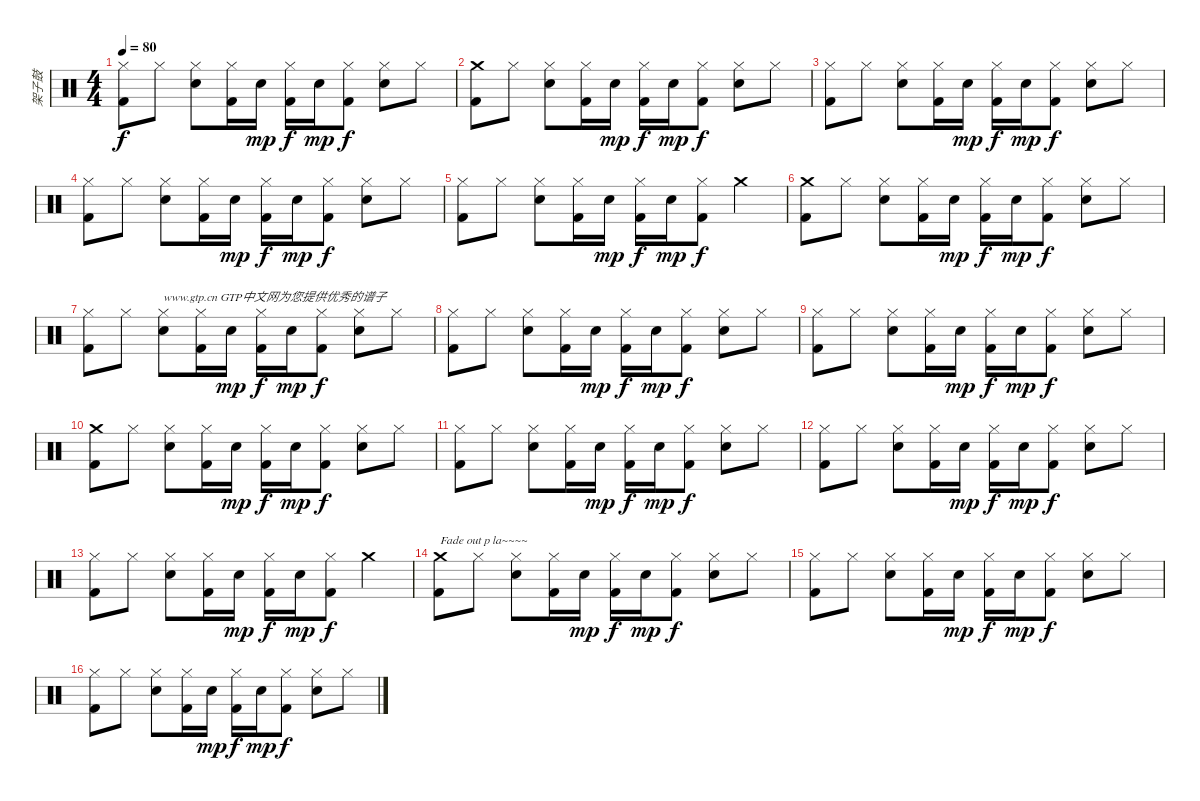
\track ("架子鼓" "架子鼓") {instrument percussion}
\staff {score}
\articulation defaults
\ts (4 4)
\tempo 80
\clef neutral
\ks c
("Hi-Hat (closed)" "Kick (hit) 2").8{dy f} "Hi-Hat (closed)".8 ("Hi-Hat (closed)" "Snare (hit) 2").8 ("Hi-Hat (closed)" "Kick (hit) 2").16 "Snare (hit) 2".16{dy mp} ("Hi-Hat (closed)" "Kick (hit) 2").16{dy f} "Snare (hit) 2".16{dy mp} ("Hi-Hat (closed)" "Kick (hit) 2").8{dy f} ("Hi-Hat (closed)" "Snare (hit) 2").8 "Hi-Hat (closed)".8 |
("Crash medium (hit)" "Kick (hit) 2").8 "Hi-Hat (closed)".8 ("Hi-Hat (closed)" "Snare (hit) 2").8 ("Hi-Hat (closed)" "Kick (hit) 2").16 "Snare (hit) 2".16{dy mp} ("Hi-Hat (closed)" "Kick (hit) 2").16{dy f} "Snare (hit) 2".16{dy mp} ("Hi-Hat (closed)" "Kick (hit) 2").8{dy f} ("Hi-Hat (closed)" "Snare (hit) 2").8 "Hi-Hat (closed)".8 |
("Hi-Hat (closed)" "Kick (hit) 2").8 "Hi-Hat (closed)".8 ("Hi-Hat (closed)" "Snare (hit) 2").8 ("Hi-Hat (closed)" "Kick (hit) 2").16 "Snare (hit) 2".16{dy mp} ("Hi-Hat (closed)" "Kick (hit) 2").16{dy f} "Snare (hit) 2".16{dy mp} ("Hi-Hat (closed)" "Kick (hit) 2").8{dy f} ("Hi-Hat (closed)" "Snare (hit) 2").8 "Hi-Hat (closed)".8 |
("Hi-Hat (closed)" "Kick (hit) 2").8 "Hi-Hat (closed)".8 ("Hi-Hat (closed)" "Snare (hit) 2").8 ("Hi-Hat (closed)" "Kick (hit) 2").16 "Snare (hit) 2".16{dy mp} ("Hi-Hat (closed)" "Kick (hit) 2").16{dy f} "Snare (hit) 2".16{dy mp} ("Hi-Hat (closed)" "Kick (hit) 2").8{dy f} ("Hi-Hat (closed)" "Snare (hit) 2").8 "Hi-Hat (closed)".8 |
("Hi-Hat (closed)" "Kick (hit) 2").8 "Hi-Hat (closed)".8 ("Hi-Hat (closed)" "Snare (hit) 2").8 ("Hi-Hat (closed)" "Kick (hit) 2").16 "Snare (hit) 2".16{dy mp} ("Hi-Hat (closed)" "Kick (hit) 2").16{dy f} "Snare (hit) 2".16{dy mp} ("Hi-Hat (closed)" "Kick (hit) 2").8{dy f} "Crash medium (hit)".4 |
("Crash medium (hit)" "Kick (hit) 2").8 "Hi-Hat (closed)".8 ("Hi-Hat (closed)" "Snare (hit) 2").8 ("Hi-Hat (closed)" "Kick (hit) 2").16 "Snare (hit) 2".16{dy mp} ("Hi-Hat (closed)" "Kick (hit) 2").16{dy f} "Snare (hit) 2".16{dy mp} ("Hi-Hat (closed)" "Kick (hit) 2").8{dy f} ("Hi-Hat (closed)" "Snare (hit) 2").8 "Hi-Hat (closed)".8 |
("Hi-Hat (closed)" "Kick (hit) 2").8 "Hi-Hat (closed)".8 ("Hi-Hat (closed)" "Snare (hit) 2").8{txt "www.gtp.cn GTP中文网为您提供优秀的谱子"} ("Hi-Hat (closed)" "Kick (hit) 2").16 "Snare (hit) 2".16{dy mp} ("Hi-Hat (closed)" "Kick (hit) 2").16{dy f} "Snare (hit) 2".16{dy mp} ("Hi-Hat (closed)" "Kick (hit) 2").8{dy f} ("Hi-Hat (closed)" "Snare (hit) 2").8 "Hi-Hat (closed)".8 |
("Hi-Hat (closed)" "Kick (hit) 2").8 "Hi-Hat (closed)".8 ("Hi-Hat (closed)" "Snare (hit) 2").8 ("Hi-Hat (closed)" "Kick (hit) 2").16 "Snare (hit) 2".16{dy mp} ("Hi-Hat (closed)" "Kick (hit) 2").16{dy f} "Snare (hit) 2".16{dy mp} ("Hi-Hat (closed)" "Kick (hit) 2").8{dy f} ("Hi-Hat (closed)" "Snare (hit) 2").8 "Hi-Hat (closed)".8 |
("Hi-Hat (closed)" "Kick (hit) 2").8 "Hi-Hat (closed)".8 ("Hi-Hat (closed)" "Snare (hit) 2").8 ("Hi-Hat (closed)" "Kick (hit) 2").16 "Snare (hit) 2".16{dy mp} ("Hi-Hat (closed)" "Kick (hit) 2").16{dy f} "Snare (hit) 2".16{dy mp} ("Hi-Hat (closed)" "Kick (hit) 2").8{dy f} ("Hi-Hat (closed)" "Snare (hit) 2").8 "Hi-Hat (closed)".8 |
("Crash medium (hit)" "Kick (hit) 2").8 "Hi-Hat (closed)".8 ("Hi-Hat (closed)" "Snare (hit) 2").8 ("Hi-Hat (closed)" "Kick (hit) 2").16 "Snare (hit) 2".16{dy mp} ("Hi-Hat (closed)" "Kick (hit) 2").16{dy f} "Snare (hit) 2".16{dy mp} ("Hi-Hat (closed)" "Kick (hit) 2").8{dy f} ("Hi-Hat (closed)" "Snare (hit) 2").8 "Hi-Hat (closed)".8 |
("Hi-Hat (closed)" "Kick (hit) 2").8 "Hi-Hat (closed)".8 ("Hi-Hat (closed)" "Snare (hit) 2").8 ("Hi-Hat (closed)" "Kick (hit) 2").16 "Snare (hit) 2".16{dy mp} ("Hi-Hat (closed)" "Kick (hit) 2").16{dy f} "Snare (hit) 2".16{dy mp} ("Hi-Hat (closed)" "Kick (hit) 2").8{dy f} ("Hi-Hat (closed)" "Snare (hit) 2").8 "Hi-Hat (closed)".8 |
("Hi-Hat (closed)" "Kick (hit) 2").8 "Hi-Hat (closed)".8 ("Hi-Hat (closed)" "Snare (hit) 2").8 ("Hi-Hat (closed)" "Kick (hit) 2").16 "Snare (hit) 2".16{dy mp} ("Hi-Hat (closed)" "Kick (hit) 2").16{dy f} "Snare (hit) 2".16{dy mp} ("Hi-Hat (closed)" "Kick (hit) 2").8{dy f} ("Hi-Hat (closed)" "Snare (hit) 2").8 "Hi-Hat (closed)".8 |
("Hi-Hat (closed)" "Kick (hit) 2").8 "Hi-Hat (closed)".8 ("Hi-Hat (closed)" "Snare (hit) 2").8 ("Hi-Hat (closed)" "Kick (hit) 2").16 "Snare (hit) 2".16{dy mp} ("Hi-Hat (closed)" "Kick (hit) 2").16{dy f} "Snare (hit) 2".16{dy mp} ("Hi-Hat (closed)" "Kick (hit) 2").8{dy f} "Crash medium (hit)".4 |
("Crash medium (hit)" "Kick (hit) 2").8{txt "Fade out р la~~~~"} "Hi-Hat (closed)".8 ("Hi-Hat (closed)" "Snare (hit) 2").8 ("Hi-Hat (closed)" "Kick (hit) 2").16 "Snare (hit) 2".16{dy mp} ("Hi-Hat (closed)" "Kick (hit) 2").16{dy f} "Snare (hit) 2".16{dy mp} ("Hi-Hat (closed)" "Kick (hit) 2").8{dy f} ("Hi-Hat (closed)" "Snare (hit) 2").8 "Hi-Hat (closed)".8 |
("Hi-Hat (closed)" "Kick (hit) 2").8 "Hi-Hat (closed)".8 ("Hi-Hat (closed)" "Snare (hit) 2").8 ("Hi-Hat (closed)" "Kick (hit) 2").16 "Snare (hit) 2".16{dy mp} ("Hi-Hat (closed)" "Kick (hit) 2").16{dy f} "Snare (hit) 2".16{dy mp} ("Hi-Hat (closed)" "Kick (hit) 2").8{dy f} ("Hi-Hat (closed)" "Snare (hit) 2").8 "Hi-Hat (closed)".8 |
("Hi-Hat (closed)" "Kick (hit) 2").8 "Hi-Hat (closed)".8 ("Hi-Hat (closed)" "Snare (hit) 2").8 ("Hi-Hat (closed)" "Kick (hit) 2").16 "Snare (hit) 2".16{dy mp} ("Hi-Hat (closed)" "Kick (hit) 2").16{dy f} "Snare (hit) 2".16{dy mp} ("Hi-Hat (closed)" "Kick (hit) 2").8{dy f} ("Hi-Hat (closed)" "Snare (hit) 2").8 "Hi-Hat (closed)".8
